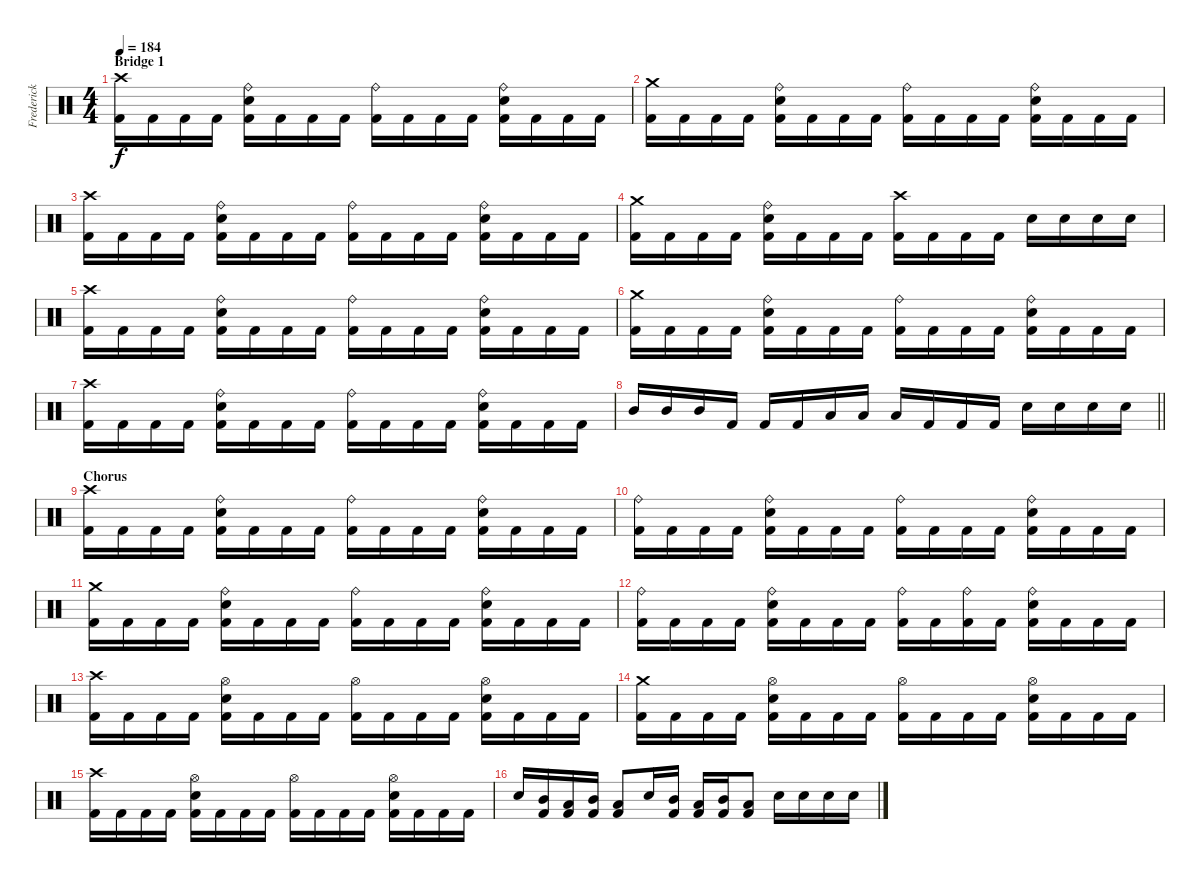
\track ("Frederick Ehmke" "Frederick ") {instrument percussion}
\staff {score}
\articulation defaults
\ts (4 4)
\section ("" "Bridge 1")
\tempo 184
\clef neutral
\ks c
("Kick (hit) 2" "Crash high (hit)").16{dy f} "Kick (hit) 2".16 "Kick (hit) 2".16 "Kick (hit) 2".16 ("Electric Snare (hit)" "Kick (hit) 2" "Ride (bell)").16 "Kick (hit) 2".16 "Kick (hit) 2".16 "Kick (hit) 2".16 ("Kick (hit) 2" "Ride (bell)").16 "Kick (hit) 2".16 "Kick (hit) 2".16 "Kick (hit) 2".16 ("Electric Snare (hit)" "Kick (hit) 2" "Ride (bell)").16 "Kick (hit) 2".16 "Kick (hit) 2".16 "Kick (hit) 2".16 |
("Kick (hit) 2" "Crash medium (hit)").16 "Kick (hit) 2".16 "Kick (hit) 2".16 "Kick (hit) 2".16 ("Electric Snare (hit)" "Kick (hit) 2" "Ride (bell)").16 "Kick (hit) 2".16 "Kick (hit) 2".16 "Kick (hit) 2".16 ("Kick (hit) 2" "Ride (bell)").16 "Kick (hit) 2".16 "Kick (hit) 2".16 "Kick (hit) 2".16 ("Electric Snare (hit)" "Kick (hit) 2" "Ride (bell)").16 "Kick (hit) 2".16 "Kick (hit) 2".16 "Kick (hit) 2".16 |
("Kick (hit) 2" "Crash high (hit)").16 "Kick (hit) 2".16 "Kick (hit) 2".16 "Kick (hit) 2".16 ("Electric Snare (hit)" "Kick (hit) 2" "Ride (bell)").16 "Kick (hit) 2".16 "Kick (hit) 2".16 "Kick (hit) 2".16 ("Kick (hit) 2" "Ride (bell)").16 "Kick (hit) 2".16 "Kick (hit) 2".16 "Kick (hit) 2".16 ("Electric Snare (hit)" "Kick (hit) 2" "Ride (bell)").16 "Kick (hit) 2".16 "Kick (hit) 2".16 "Kick (hit) 2".16 |
("Kick (hit) 2" "Crash medium (hit)").16 "Kick (hit) 2".16 "Kick (hit) 2".16 "Kick (hit) 2".16 ("Electric Snare (hit)" "Kick (hit) 2" "Ride (bell)").16 "Kick (hit) 2".16 "Kick (hit) 2".16 "Kick (hit) 2".16 ("Kick (hit) 2" "Crash high (hit)").16 "Kick (hit) 2".16 "Kick (hit) 2".16 "Kick (hit) 2".16 "Electric Snare (hit)".16 "Electric Snare (hit)".16 "Electric Snare (hit)".16 "Electric Snare (hit)".16 |
("Kick (hit) 2" "Crash high (hit)").16 "Kick (hit) 2".16 "Kick (hit) 2".16 "Kick (hit) 2".16 ("Electric Snare (hit)" "Kick (hit) 2" "Ride (bell)").16 "Kick (hit) 2".16 "Kick (hit) 2".16 "Kick (hit) 2".16 ("Kick (hit) 2" "Ride (bell)").16 "Kick (hit) 2".16 "Kick (hit) 2".16 "Kick (hit) 2".16 ("Electric Snare (hit)" "Kick (hit) 2" "Ride (bell)").16 "Kick (hit) 2".16 "Kick (hit) 2".16 "Kick (hit) 2".16 |
("Kick (hit) 2" "Crash medium (hit)").16 "Kick (hit) 2".16 "Kick (hit) 2".16 "Kick (hit) 2".16 ("Electric Snare (hit)" "Kick (hit) 2" "Ride (bell)").16 "Kick (hit) 2".16 "Kick (hit) 2".16 "Kick (hit) 2".16 ("Kick (hit) 2" "Ride (bell)").16 "Kick (hit) 2".16 "Kick (hit) 2".16 "Kick (hit) 2".16 ("Electric Snare (hit)" "Kick (hit) 2" "Ride (bell)").16 "Kick (hit) 2".16 "Kick (hit) 2".16 "Kick (hit) 2".16 |
("Kick (hit) 2" "Crash high (hit)").16 "Kick (hit) 2".16 "Kick (hit) 2".16 "Kick (hit) 2".16 ("Electric Snare (hit)" "Kick (hit) 2" "Ride (bell)").16 "Kick (hit) 2".16 "Kick (hit) 2".16 "Kick (hit) 2".16 ("Kick (hit) 2" "Ride (bell)").16 "Kick (hit) 2".16 "Kick (hit) 2".16 "Kick (hit) 2".16 ("Electric Snare (hit)" "Kick (hit) 2" "Ride (bell)").16 "Kick (hit) 2".16 "Kick (hit) 2".16 "Kick (hit) 2".16 |
\barLineRight lightlight "Mid Tom (hit)".16 "Mid Tom (hit)".16 "Mid Tom (hit)".16 "Kick (hit) 2".16 "Kick (hit) 2".16 "Kick (hit) 2".16 "Low Tom (hit)".16 "Low Tom (hit)".16 "Low Tom (hit)".16 "Kick (hit) 2".16 "Kick (hit) 2".16 "Kick (hit) 2".16 "Electric Snare (hit)".16 "Electric Snare (hit)".16 "Electric Snare (hit)".16 "Electric Snare (hit)".16
|
\section ("" "Chorus")
("Kick (hit) 2" "Crash high (hit)").16 "Kick (hit) 2".16 "Kick (hit) 2".16 "Kick (hit) 2".16 ("Electric Snare (hit)" "Kick (hit) 2" "Ride (bell)").16 "Kick (hit) 2".16 "Kick (hit) 2".16 "Kick (hit) 2".16 ("Kick (hit) 2" "Ride (bell)").16 "Kick (hit) 2".16 "Kick (hit) 2".16 "Kick (hit) 2".16 ("Electric Snare (hit)" "Kick (hit) 2" "Ride (bell)").16 "Kick (hit) 2".16 "Kick (hit) 2".16 "Kick (hit) 2".16 |
("Kick (hit) 2" "Ride (bell)").16 "Kick (hit) 2".16 "Kick (hit) 2".16 "Kick (hit) 2".16 ("Electric Snare (hit)" "Kick (hit) 2" "Ride (bell)").16 "Kick (hit) 2".16 "Kick (hit) 2".16 "Kick (hit) 2".16 ("Kick (hit) 2" "Ride (bell)").16 "Kick (hit) 2".16 "Kick (hit) 2".16 "Kick (hit) 2".16 ("Electric Snare (hit)" "Kick (hit) 2" "Ride (bell)").16 "Kick (hit) 2".16 "Kick (hit) 2".16 "Kick (hit) 2".16 |
("Kick (hit) 2" "Crash medium (hit)").16 "Kick (hit) 2".16 "Kick (hit) 2".16 "Kick (hit) 2".16 ("Electric Snare (hit)" "Kick (hit) 2" "Ride (bell)").16 "Kick (hit) 2".16 "Kick (hit) 2".16 "Kick (hit) 2".16 ("Kick (hit) 2" "Ride (bell)").16 "Kick (hit) 2".16 "Kick (hit) 2".16 "Kick (hit) 2".16 ("Electric Snare (hit)" "Kick (hit) 2" "Ride (bell)").16 "Kick (hit) 2".16 "Kick (hit) 2".16 "Kick (hit) 2".16 |
("Kick (hit) 2" "Ride (bell)").16 "Kick (hit) 2".16 "Kick (hit) 2".16 "Kick (hit) 2".16 ("Electric Snare (hit)" "Kick (hit) 2" "Ride (bell)").16 "Kick (hit) 2".16 "Kick (hit) 2".16 "Kick (hit) 2".16 ("Kick (hit) 2" "Ride (bell)").16 "Kick (hit) 2".16 ("Kick (hit) 2" "Ride (bell)").16 "Kick (hit) 2".16 ("Electric Snare (hit)" "Kick (hit) 2" "Ride (bell)").16 "Kick (hit) 2".16 "Kick (hit) 2".16 "Kick (hit) 2".16 |
("Kick (hit) 2" "Crash high (hit)").16 "Kick (hit) 2".16 "Kick (hit) 2".16 "Kick (hit) 2".16 ("Electric Snare (hit)" "Kick (hit) 2" "Hi-Hat (open)").16 "Kick (hit) 2".16 "Kick (hit) 2".16 "Kick (hit) 2".16 ("Kick (hit) 2" "Hi-Hat (open)").16 "Kick (hit) 2".16 "Kick (hit) 2".16 "Kick (hit) 2".16 ("Electric Snare (hit)" "Kick (hit) 2" "Hi-Hat (open)").16 "Kick (hit) 2".16 "Kick (hit) 2".16 "Kick (hit) 2".16 |
("Kick (hit) 2" "Crash medium (hit)").16 "Kick (hit) 2".16 "Kick (hit) 2".16 "Kick (hit) 2".16 ("Electric Snare (hit)" "Kick (hit) 2" "Hi-Hat (open)").16 "Kick (hit) 2".16 "Kick (hit) 2".16 "Kick (hit) 2".16 ("Kick (hit) 2" "Hi-Hat (open)").16 "Kick (hit) 2".16 "Kick (hit) 2".16 "Kick (hit) 2".16 ("Electric Snare (hit)" "Kick (hit) 2" "Hi-Hat (open)").16 "Kick (hit) 2".16 "Kick (hit) 2".16 "Kick (hit) 2".16 |
("Kick (hit) 2" "Crash high (hit)").16 "Kick (hit) 2".16 "Kick (hit) 2".16 "Kick (hit) 2".16 ("Electric Snare (hit)" "Kick (hit) 2" "Hi-Hat (open)").16 "Kick (hit) 2".16 "Kick (hit) 2".16 "Kick (hit) 2".16 ("Kick (hit) 2" "Hi-Hat (open)").16 "Kick (hit) 2".16 "Kick (hit) 2".16 "Kick (hit) 2".16 ("Electric Snare (hit)" "Kick (hit) 2" "Hi-Hat (open)").16 "Kick (hit) 2".16 "Kick (hit) 2".16 "Kick (hit) 2".16 |
"Electric Snare (hit)".16 ("Kick (hit) 2" "Mid Tom (hit)").16 ("Kick (hit) 2" "Low Floor Tom (hit)").16 ("Kick (hit) 2" "Mid Tom (hit)").16 ("Kick (hit) 2" "Low Floor Tom (hit)").8 "Electric Snare (hit)".16 ("Kick (hit) 2" "Mid Tom (hit)").16 ("Kick (hit) 2" "Low Floor Tom (hit)").16 ("Kick (hit) 2" "Mid Tom (hit)").16 ("Kick (hit) 2" "Low Floor Tom (hit)").8 "Electric Snare (hit)".16 "Electric Snare (hit)".16 "Electric Snare (hit)".16 "Electric Snare (hit)".16
